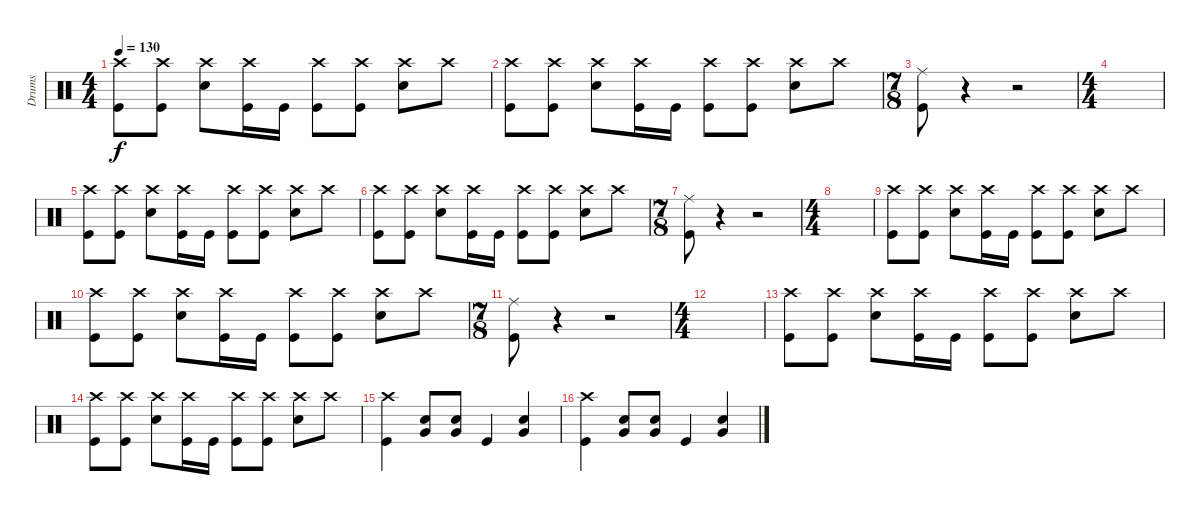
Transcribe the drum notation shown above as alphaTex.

\track ("Drums" "Drums") {instrument percussion}
\staff {score}
\articulation defaults
\ts (4 4)
\tempo 130
\clef neutral
\ks c
("Crash high (hit)" "Kick (hit)").8{dy f} ("Crash high (hit)" "Kick (hit)").8 ("Crash high (hit)" "Snare (hit) 2").8 ("Crash high (hit)" "Kick (hit)").16 "Kick (hit)".16 ("Crash high (hit)" "Kick (hit)").8 ("Crash high (hit)" "Kick (hit)").8 ("Crash high (hit)" "Snare (hit) 2").8 "Crash high (hit)".8 |
("Crash high (hit)" "Kick (hit)").8 ("Crash high (hit)" "Kick (hit)").8 ("Crash high (hit)" "Snare (hit) 2").8 ("Crash high (hit)" "Kick (hit)").16 "Kick (hit)".16 ("Crash high (hit)" "Kick (hit)").8 ("Crash high (hit)" "Kick (hit)").8 ("Crash high (hit)" "Snare (hit) 2").8 "Crash high (hit)".8 |
\ts (7 8)
("Ride (middle)" "Kick (hit)").8 r.4 r.2 |
\ts (4 4)
|
("Crash high (hit)" "Kick (hit)").8 ("Crash high (hit)" "Kick (hit)").8 ("Crash high (hit)" "Snare (hit) 2").8 ("Crash high (hit)" "Kick (hit)").16 "Kick (hit)".16 ("Crash high (hit)" "Kick (hit)").8 ("Crash high (hit)" "Kick (hit)").8 ("Crash high (hit)" "Snare (hit) 2").8 "Crash high (hit)".8 |
("Crash high (hit)" "Kick (hit)").8 ("Crash high (hit)" "Kick (hit)").8 ("Crash high (hit)" "Snare (hit) 2").8 ("Crash high (hit)" "Kick (hit)").16 "Kick (hit)".16 ("Crash high (hit)" "Kick (hit)").8 ("Crash high (hit)" "Kick (hit)").8 ("Crash high (hit)" "Snare (hit) 2").8 "Crash high (hit)".8 |
\ts (7 8)
("Ride (middle)" "Kick (hit)").8 r.4 r.2 |
\ts (4 4)
|
("Crash high (hit)" "Kick (hit)").8 ("Crash high (hit)" "Kick (hit)").8 ("Crash high (hit)" "Snare (hit) 2").8 ("Crash high (hit)" "Kick (hit)").16 "Kick (hit)".16 ("Crash high (hit)" "Kick (hit)").8 ("Crash high (hit)" "Kick (hit)").8 ("Crash high (hit)" "Snare (hit) 2").8 "Crash high (hit)".8 |
("Crash high (hit)" "Kick (hit)").8 ("Crash high (hit)" "Kick (hit)").8 ("Crash high (hit)" "Snare (hit) 2").8 ("Crash high (hit)" "Kick (hit)").16 "Kick (hit)".16 ("Crash high (hit)" "Kick (hit)").8 ("Crash high (hit)" "Kick (hit)").8 ("Crash high (hit)" "Snare (hit) 2").8 "Crash high (hit)".8 |
\ts (7 8)
("Ride (middle)" "Kick (hit)").8 r.4 r.2 |
\ts (4 4)
|
("Crash high (hit)" "Kick (hit)").8 ("Crash high (hit)" "Kick (hit)").8 ("Crash high (hit)" "Snare (hit) 2").8 ("Crash high (hit)" "Kick (hit)").16 "Kick (hit)".16 ("Crash high (hit)" "Kick (hit)").8 ("Crash high (hit)" "Kick (hit)").8 ("Crash high (hit)" "Snare (hit) 2").8 "Crash high (hit)".8 |
("Crash high (hit)" "Kick (hit)").8 ("Crash high (hit)" "Kick (hit)").8 ("Crash high (hit)" "Snare (hit) 2").8 ("Crash high (hit)" "Kick (hit)").16 "Kick (hit)".16 ("Crash high (hit)" "Kick (hit)").8 ("Crash high (hit)" "Kick (hit)").8 ("Crash high (hit)" "Snare (hit) 2").8 "Crash high (hit)".8 |
("Crash high (hit)" "Kick (hit)").4 ("Snare (hit) 2" "Very Low Tom (hit)").8 ("Snare (hit) 2" "Very Low Tom (hit)").8 "Kick (hit)".4 ("Snare (hit) 2" "Very Low Tom (hit)").4 |
("Crash high (hit)" "Kick (hit)").4 ("Snare (hit) 2" "Very Low Tom (hit)").8 ("Snare (hit) 2" "Very Low Tom (hit)").8 "Kick (hit)".4 ("Snare (hit) 2" "Very Low Tom (hit)").4
